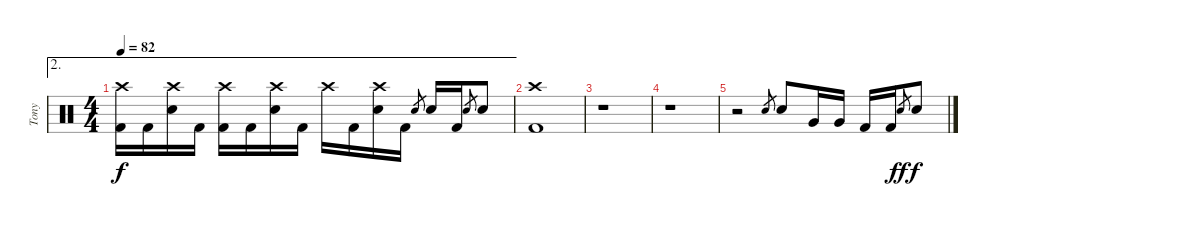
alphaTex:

\track ("Tony" "Tony") {instrument percussion}
\staff {score}
\articulation defaults
\ae 2
\ts (4 4)
\tempo 82
\clef neutral
\ks c
("Kick (hit) 2" "Crash high (hit)").16{dy f} "Kick (hit) 2".16 ("Crash high (hit)" "Snare (hit) 2").16 "Kick (hit) 2".16 ("Kick (hit) 2" "Crash high (hit)").16 "Kick (hit) 2".16 ("Crash high (hit)" "Snare (hit) 2").16 "Kick (hit) 2".16 "Crash high (hit)".16 "Kick (hit) 2".16 ("Crash high (hit)" "Snare (hit) 2").16 "Kick (hit) 2".16 "Snare (hit) 2".8{gr} "Snare (hit) 2".16 "Kick (hit) 2".16 "Snare (hit) 2".8{gr} "Snare (hit) 2".8 |
("Kick (hit) 2" "Crash high (hit)").1 |
r.1 |
r.1 |
r.2 "Snare (hit) 2".8{gr} "Snare (hit) 2".8 "Very Low Tom (hit)".16 "Very Low Tom (hit)".16 "Kick (hit) 2".16 "Kick (hit) 2".16 "Snare (hit) 2".8{gr dy ff} "Snare (hit) 2".8{dy f}
